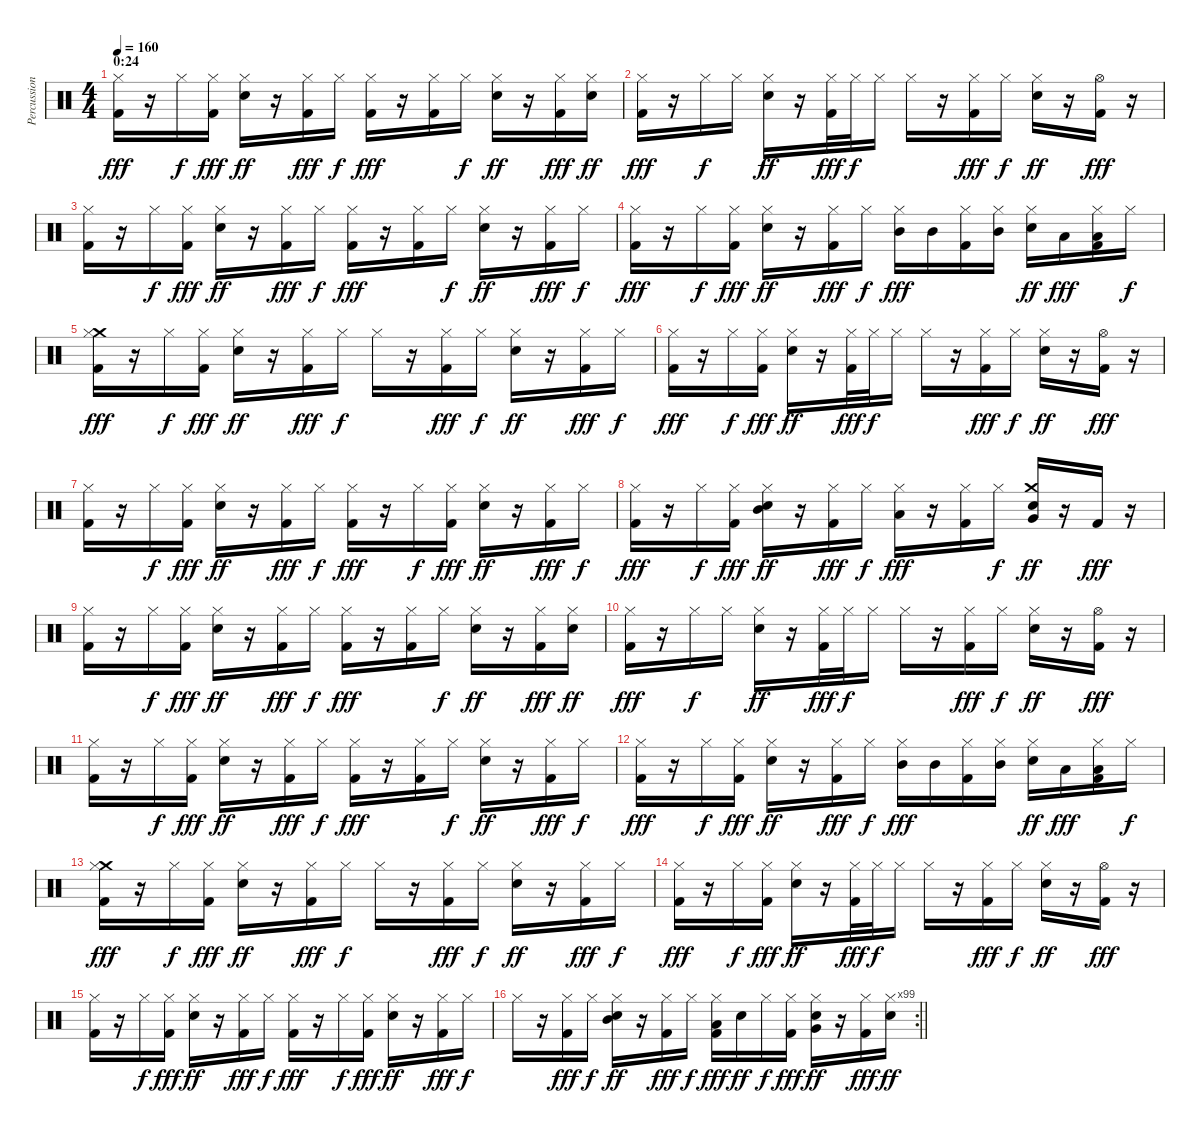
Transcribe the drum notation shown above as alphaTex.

\track ("Percussion" "Percussion") {instrument percussion}
\staff {score}
\articulation defaults
\ts (4 4)
\section ("" "0:24")
\tempo 160
\clef neutral
\ks c
("Hi-Hat (closed)" "Kick (hit) 2").16{dy fff} r.16 "Hi-Hat (closed)".16{dy f} ("Hi-Hat (closed)" "Kick (hit) 2").16{dy fff} ("Hi-Hat (closed)" "Electric Snare (hit)").16{dy ff} r.16 ("Hi-Hat (closed)" "Kick (hit) 2").16{dy fff} "Hi-Hat (closed)".16{dy f} ("Hi-Hat (closed)" "Kick (hit) 2").16{dy fff} r.16 ("Hi-Hat (closed)" "Kick (hit) 2").16 "Hi-Hat (closed)".16{dy f} ("Hi-Hat (closed)" "Electric Snare (hit)").16{dy ff} r.16 ("Hi-Hat (closed)" "Kick (hit) 2").16{dy fff} ("Hi-Hat (closed)" "Electric Snare (hit)").16{dy ff} |
("Hi-Hat (closed)" "Kick (hit) 2").16{dy fff} r.16 "Hi-Hat (closed)".16{dy f} "Hi-Hat (closed)".16 ("Hi-Hat (closed)" "Electric Snare (hit)").16{dy ff} r.16 ("Hi-Hat (closed)" "Kick (hit) 2").32{dy fff} "Hi-Hat (closed)".32{dy f} "Hi-Hat (closed)".16 "Hi-Hat (closed)".16 r.16 ("Hi-Hat (closed)" "Kick (hit) 2").16{dy fff} "Hi-Hat (closed)".16{dy f} ("Hi-Hat (closed)" "Electric Snare (hit)").16{dy ff} r.16 ("Hi-Hat (open)" "Kick (hit) 2").16{dy fff} r.16 |
("Hi-Hat (closed)" "Kick (hit) 2").16 r.16 "Hi-Hat (closed)".16{dy f} ("Hi-Hat (closed)" "Kick (hit) 2").16{dy fff} ("Hi-Hat (closed)" "Electric Snare (hit)").16{dy ff} r.16 ("Hi-Hat (closed)" "Kick (hit) 2").16{dy fff} "Hi-Hat (closed)".16{dy f} ("Hi-Hat (closed)" "Kick (hit) 2").16{dy fff} r.16 ("Hi-Hat (closed)" "Kick (hit) 2").16 "Hi-Hat (closed)".16{dy f} ("Hi-Hat (closed)" "Electric Snare (hit)").16{dy ff} r.16 ("Hi-Hat (closed)" "Kick (hit) 2").16{dy fff} "Hi-Hat (closed)".16{dy f} |
("Hi-Hat (closed)" "Kick (hit) 2").16{dy fff} r.16 "Hi-Hat (closed)".16{dy f} ("Hi-Hat (closed)" "Kick (hit) 2").16{dy fff} ("Hi-Hat (closed)" "Electric Snare (hit)").16{dy ff} r.16 ("Hi-Hat (closed)" "Kick (hit) 2").16{dy fff} "Hi-Hat (closed)".16{dy f} ("Mid Tom (hit)" "Hi-Hat (closed)").16{dy fff} "Mid Tom (hit)".16 ("Hi-Hat (closed)" "Kick (hit) 2").16 ("Mid Tom (hit)" "Hi-Hat (closed)").16 ("Hi-Hat (closed)" "Electric Snare (hit)").16{dy ff} "Low Tom (hit)".16{dy fff} ("Low Tom (hit)" "Hi-Hat (closed)" "Kick (hit) 2").16 "Hi-Hat (closed)".16{dy f} |
("Crash medium (hit)" "Hi-Hat (closed)" "Kick (hit) 2").16{dy fff} r.16 "Hi-Hat (closed)".16{dy f} ("Hi-Hat (closed)" "Kick (hit) 2").16{dy fff} ("Hi-Hat (closed)" "Electric Snare (hit)").16{dy ff} r.16 ("Hi-Hat (closed)" "Kick (hit) 2").16{dy fff} "Hi-Hat (closed)".16{dy f} "Hi-Hat (closed)".16 r.16 ("Hi-Hat (closed)" "Kick (hit) 2").16{dy fff} "Hi-Hat (closed)".16{dy f} ("Hi-Hat (closed)" "Electric Snare (hit)").16{dy ff} r.16 ("Hi-Hat (closed)" "Kick (hit) 2").16{dy fff} "Hi-Hat (closed)".16{dy f} |
("Hi-Hat (closed)" "Kick (hit) 2").16{dy fff} r.16 "Hi-Hat (closed)".16{dy f} ("Hi-Hat (closed)" "Kick (hit) 2").16{dy fff} ("Hi-Hat (closed)" "Electric Snare (hit)").16{dy ff} r.16 ("Hi-Hat (closed)" "Kick (hit) 2").32{dy fff} "Hi-Hat (closed)".32{dy f} "Hi-Hat (closed)".16 "Hi-Hat (closed)".16 r.16 ("Hi-Hat (closed)" "Kick (hit) 2").16{dy fff} "Hi-Hat (closed)".16{dy f} ("Hi-Hat (closed)" "Electric Snare (hit)").16{dy ff} r.16 ("Hi-Hat (open)" "Kick (hit) 2").16{dy fff} r.16 |
("Hi-Hat (closed)" "Kick (hit) 2").16 r.16 "Hi-Hat (closed)".16{dy f} ("Hi-Hat (closed)" "Kick (hit) 2").16{dy fff} ("Hi-Hat (closed)" "Electric Snare (hit)").16{dy ff} r.16 ("Hi-Hat (closed)" "Kick (hit) 2").16{dy fff} "Hi-Hat (closed)".16{dy f} ("Hi-Hat (closed)" "Kick (hit) 2").16{dy fff} r.16 "Hi-Hat (closed)".16{dy f} ("Hi-Hat (closed)" "Kick (hit) 2").16{dy fff} ("Hi-Hat (closed)" "Electric Snare (hit)").16{dy ff} r.16 ("Hi-Hat (closed)" "Kick (hit) 2").16{dy fff} "Hi-Hat (closed)".16{dy f} |
("Hi-Hat (closed)" "Kick (hit) 2").16{dy fff} r.16 "Hi-Hat (closed)".16{dy f} ("Hi-Hat (closed)" "Kick (hit) 2").16{dy fff} ("Mid Tom (hit)" "Hi-Hat (closed)" "Electric Snare (hit)").16{dy ff} r.16 ("Hi-Hat (closed)" "Kick (hit) 2").16{dy fff} "Hi-Hat (closed)".16{dy f} ("Low Tom (hit)" "Hi-Hat (closed)").16{dy fff} r.16 ("Hi-Hat (closed)" "Kick (hit) 2").16 "Hi-Hat (closed)".16{dy f} ("Very Low Tom (hit)" "Crash medium (hit)" "Electric Snare (hit)").16{dy ff} r.16 "Kick (hit) 2".16{dy fff} r.16 |
("Hi-Hat (closed)" "Kick (hit) 2").16 r.16 "Hi-Hat (closed)".16{dy f} ("Hi-Hat (closed)" "Kick (hit) 2").16{dy fff} ("Hi-Hat (closed)" "Electric Snare (hit)").16{dy ff} r.16 ("Hi-Hat (closed)" "Kick (hit) 2").16{dy fff} "Hi-Hat (closed)".16{dy f} ("Hi-Hat (closed)" "Kick (hit) 2").16{dy fff} r.16 ("Hi-Hat (closed)" "Kick (hit) 2").16 "Hi-Hat (closed)".16{dy f} ("Hi-Hat (closed)" "Electric Snare (hit)").16{dy ff} r.16 ("Hi-Hat (closed)" "Kick (hit) 2").16{dy fff} ("Hi-Hat (closed)" "Electric Snare (hit)").16{dy ff} |
("Hi-Hat (closed)" "Kick (hit) 2").16{dy fff} r.16 "Hi-Hat (closed)".16{dy f} "Hi-Hat (closed)".16 ("Hi-Hat (closed)" "Electric Snare (hit)").16{dy ff} r.16 ("Hi-Hat (closed)" "Kick (hit) 2").32{dy fff} "Hi-Hat (closed)".32{dy f} "Hi-Hat (closed)".16 "Hi-Hat (closed)".16 r.16 ("Hi-Hat (closed)" "Kick (hit) 2").16{dy fff} "Hi-Hat (closed)".16{dy f} ("Hi-Hat (closed)" "Electric Snare (hit)").16{dy ff} r.16 ("Hi-Hat (open)" "Kick (hit) 2").16{dy fff} r.16 |
("Hi-Hat (closed)" "Kick (hit) 2").16 r.16 "Hi-Hat (closed)".16{dy f} ("Hi-Hat (closed)" "Kick (hit) 2").16{dy fff} ("Hi-Hat (closed)" "Electric Snare (hit)").16{dy ff} r.16 ("Hi-Hat (closed)" "Kick (hit) 2").16{dy fff} "Hi-Hat (closed)".16{dy f} ("Hi-Hat (closed)" "Kick (hit) 2").16{dy fff} r.16 ("Hi-Hat (closed)" "Kick (hit) 2").16 "Hi-Hat (closed)".16{dy f} ("Hi-Hat (closed)" "Electric Snare (hit)").16{dy ff} r.16 ("Hi-Hat (closed)" "Kick (hit) 2").16{dy fff} "Hi-Hat (closed)".16{dy f} |
("Hi-Hat (closed)" "Kick (hit) 2").16{dy fff} r.16 "Hi-Hat (closed)".16{dy f} ("Hi-Hat (closed)" "Kick (hit) 2").16{dy fff} ("Hi-Hat (closed)" "Electric Snare (hit)").16{dy ff} r.16 ("Hi-Hat (closed)" "Kick (hit) 2").16{dy fff} "Hi-Hat (closed)".16{dy f} ("Mid Tom (hit)" "Hi-Hat (closed)").16{dy fff} "Mid Tom (hit)".16 ("Hi-Hat (closed)" "Kick (hit) 2").16 ("Mid Tom (hit)" "Hi-Hat (closed)").16 ("Hi-Hat (closed)" "Electric Snare (hit)").16{dy ff} "Low Tom (hit)".16{dy fff} ("Low Tom (hit)" "Hi-Hat (closed)" "Kick (hit) 2").16 "Hi-Hat (closed)".16{dy f} |
("Crash medium (hit)" "Hi-Hat (closed)" "Kick (hit) 2").16{dy fff} r.16 "Hi-Hat (closed)".16{dy f} ("Hi-Hat (closed)" "Kick (hit) 2").16{dy fff} ("Hi-Hat (closed)" "Electric Snare (hit)").16{dy ff} r.16 ("Hi-Hat (closed)" "Kick (hit) 2").16{dy fff} "Hi-Hat (closed)".16{dy f} "Hi-Hat (closed)".16 r.16 ("Hi-Hat (closed)" "Kick (hit) 2").16{dy fff} "Hi-Hat (closed)".16{dy f} ("Hi-Hat (closed)" "Electric Snare (hit)").16{dy ff} r.16 ("Hi-Hat (closed)" "Kick (hit) 2").16{dy fff} "Hi-Hat (closed)".16{dy f} |
("Hi-Hat (closed)" "Kick (hit) 2").16{dy fff} r.16 "Hi-Hat (closed)".16{dy f} ("Hi-Hat (closed)" "Kick (hit) 2").16{dy fff} ("Hi-Hat (closed)" "Electric Snare (hit)").16{dy ff} r.16 ("Hi-Hat (closed)" "Kick (hit) 2").32{dy fff} "Hi-Hat (closed)".32{dy f} "Hi-Hat (closed)".16 "Hi-Hat (closed)".16 r.16 ("Hi-Hat (closed)" "Kick (hit) 2").16{dy fff} "Hi-Hat (closed)".16{dy f} ("Hi-Hat (closed)" "Electric Snare (hit)").16{dy ff} r.16 ("Hi-Hat (open)" "Kick (hit) 2").16{dy fff} r.16 |
("Hi-Hat (closed)" "Kick (hit) 2").16 r.16 "Hi-Hat (closed)".16{dy f} ("Hi-Hat (closed)" "Kick (hit) 2").16{dy fff} ("Hi-Hat (closed)" "Electric Snare (hit)").16{dy ff} r.16 ("Hi-Hat (closed)" "Kick (hit) 2").16{dy fff} "Hi-Hat (closed)".16{dy f} ("Hi-Hat (closed)" "Kick (hit) 2").16{dy fff} r.16 "Hi-Hat (closed)".16{dy f} ("Hi-Hat (closed)" "Kick (hit) 2").16{dy fff} ("Hi-Hat (closed)" "Electric Snare (hit)").16{dy ff} r.16 ("Hi-Hat (closed)" "Kick (hit) 2").16{dy fff} "Hi-Hat (closed)".16{dy f} |
\rc 99
\barLineRight lightlight "Hi-Hat (closed)".16
r.16 ("Hi-Hat (closed)" "Kick (hit) 2").16{dy fff} "Hi-Hat (closed)".16{dy f} ("Mid Tom (hit)" "Hi-Hat (closed)" "Electric Snare (hit)").16{dy ff} r.16 ("Hi-Hat (closed)" "Kick (hit) 2").16{dy fff} "Hi-Hat (closed)".16{dy f} ("Low Tom (hit)" "Hi-Hat (closed)" "Kick (hit) 2").16{dy fff} "Electric Snare (hit)".16{dy ff} "Hi-Hat (closed)".16{dy f} ("Hi-Hat (closed)" "Kick (hit) 2").16{dy fff} ("Very Low Tom (hit)" "Hi-Hat (closed)" "Electric Snare (hit)").16{dy ff} r.16 ("Hi-Hat (closed)" "Kick (hit) 2").16{dy fff} ("Hi-Hat (closed)" "Electric Snare (hit)").16{dy ff}
